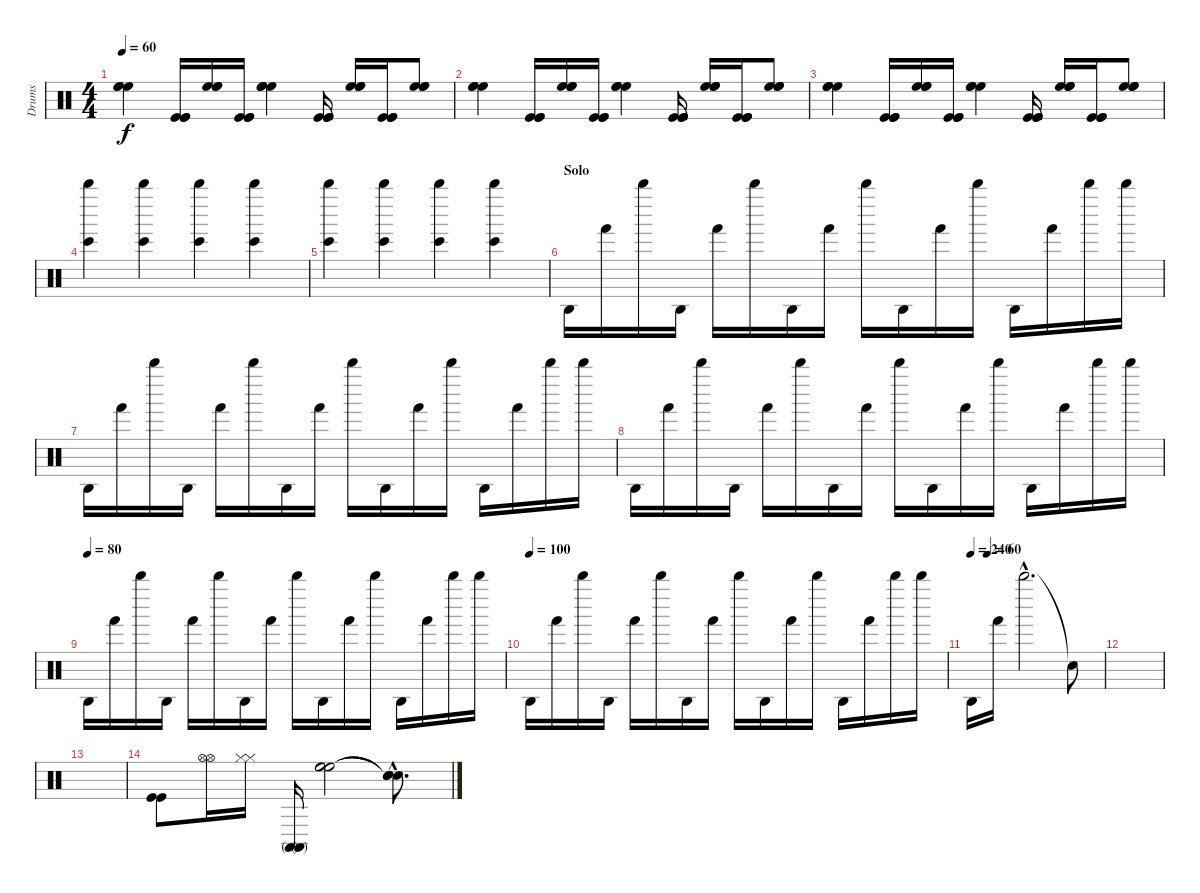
\track ("Drums" "Drums") {instrument percussion}
\staff {score}
\articulation defaults
\ts (4 4)
\tempo 60
\clef neutral
\ks c
("High Floor Tom (hit)" "High Floor Tom (hit)" "High Floor Tom (hit)").4{dy f} ("Kick (hit)" "Kick (hit)" "Kick (hit)").16 ("High Floor Tom (hit)" "High Floor Tom (hit)" "High Floor Tom (hit)").16 ("Kick (hit)" "Kick (hit)" "Kick (hit)").16 ("High Floor Tom (hit)" "High Floor Tom (hit)" "High Floor Tom (hit)").4 ("Kick (hit)" "Kick (hit)" "Kick (hit)").16 ("High Floor Tom (hit)" "High Floor Tom (hit)" "High Floor Tom (hit)").16 ("Kick (hit)" "Kick (hit)" "Kick (hit)").16 ("High Floor Tom (hit)" "High Floor Tom (hit)" "High Floor Tom (hit)").8 |
("High Floor Tom (hit)" "High Floor Tom (hit)" "High Floor Tom (hit)").4 ("Kick (hit)" "Kick (hit)" "Kick (hit)").16 ("High Floor Tom (hit)" "High Floor Tom (hit)" "High Floor Tom (hit)").16 ("Kick (hit)" "Kick (hit)" "Kick (hit)").16 ("High Floor Tom (hit)" "High Floor Tom (hit)" "High Floor Tom (hit)").4 ("Kick (hit)" "Kick (hit)" "Kick (hit)").16 ("High Floor Tom (hit)" "High Floor Tom (hit)" "High Floor Tom (hit)").16 ("Kick (hit)" "Kick (hit)" "Kick (hit)").16 ("High Floor Tom (hit)" "High Floor Tom (hit)" "High Floor Tom (hit)").8 |
("High Floor Tom (hit)" "High Floor Tom (hit)" "High Floor Tom (hit)").4 ("Kick (hit)" "Kick (hit)" "Kick (hit)").16 ("High Floor Tom (hit)" "High Floor Tom (hit)" "High Floor Tom (hit)").16 ("Kick (hit)" "Kick (hit)" "Kick (hit)").16 ("High Floor Tom (hit)" "High Floor Tom (hit)" "High Floor Tom (hit)").4 ("Kick (hit)" "Kick (hit)" "Kick (hit)").16 ("High Floor Tom (hit)" "High Floor Tom (hit)" "High Floor Tom (hit)").16 ("Kick (hit)" "Kick (hit)" "Kick (hit)").16 ("High Floor Tom (hit)" "High Floor Tom (hit)" "High Floor Tom (hit)").8 |
("Whistle high (hit)" "Bongo High (hit)").4 ("Whistle high (hit)" "Bongo High (hit)").4 ("Whistle high (hit)" "Bongo High (hit)").4 ("Whistle high (hit)" "Bongo High (hit)").4 |
("Whistle high (hit)" "Bongo High (hit)").4 ("Whistle high (hit)" "Bongo High (hit)").4 ("Whistle high (hit)" "Bongo High (hit)").4 ("Whistle high (hit)" "Bongo High (hit)").4 |
\section ("" "Solo")
"Agogo high (hit)".16 "Hand (hit)".16 "Whistle high (hit)".16 "Agogo high (hit)".16 "Hand (hit)".16 "Whistle high (hit)".16 "Agogo high (hit)".16 "Hand (hit)".16 "Whistle high (hit)".16 "Agogo high (hit)".16 "Hand (hit)".16 "Whistle high (hit)".16 "Agogo high (hit)".16 "Hand (hit)".16 "Whistle high (hit)".16 "Whistle high (hit)".16 |
"Agogo high (hit)".16 "Hand (hit)".16 "Whistle high (hit)".16 "Agogo high (hit)".16 "Hand (hit)".16 "Whistle high (hit)".16 "Agogo high (hit)".16 "Hand (hit)".16 "Whistle high (hit)".16 "Agogo high (hit)".16 "Hand (hit)".16 "Whistle high (hit)".16 "Agogo high (hit)".16 "Hand (hit)".16 "Whistle high (hit)".16 "Whistle high (hit)".16 |
"Agogo high (hit)".16 "Hand (hit)".16 "Whistle high (hit)".16 "Agogo high (hit)".16 "Hand (hit)".16 "Whistle high (hit)".16 "Agogo high (hit)".16 "Hand (hit)".16 "Whistle high (hit)".16 "Agogo high (hit)".16 "Hand (hit)".16 "Whistle high (hit)".16 "Agogo high (hit)".16 "Hand (hit)".16 "Whistle high (hit)".16 "Whistle high (hit)".16 |
\tempo (80)
"Agogo high (hit)".16 "Hand (hit)".16 "Whistle high (hit)".16 "Agogo high (hit)".16 "Hand (hit)".16 "Whistle high (hit)".16 "Agogo high (hit)".16 "Hand (hit)".16 "Whistle high (hit)".16 "Agogo high (hit)".16 "Hand (hit)".16 "Whistle high (hit)".16 "Agogo high (hit)".16 "Hand (hit)".16 "Whistle high (hit)".16 "Whistle high (hit)".16 |
\tempo (100)
"Agogo high (hit)".16 "Hand (hit)".16 "Whistle high (hit)".16 "Agogo high (hit)".16 "Hand (hit)".16 "Whistle high (hit)".16 "Agogo high (hit)".16 "Hand (hit)".16 "Whistle high (hit)".16 "Agogo high (hit)".16 "Hand (hit)".16 "Whistle high (hit)".16 "Agogo high (hit)".16 "Hand (hit)".16 "Whistle high (hit)".16 "Whistle high (hit)".16 |
\tempo 240
\tempo (60 0.125)
"Agogo high (hit)".16 "Hand (hit)".16 "Whistle high (hit)"{hac}.2{d} "Snare (hit)"{t}.8 |
|
|
("Kick (hit)" "Kick (hit)").8 ("Hi-Hat (open)" "Hi-Hat (open)").16 ("Hi-Hat (closed)" "Hi-Hat (closed)").16 ("Conga high (mute)" "Conga high (mute)").16 ("High Floor Tom (hit)" "High Floor Tom (hit)" "High Floor Tom (hit)").2 ("Snare (hit)"{hac t} "Snare (hit)"{hac t} "Snare (hit)"{hac t}).8{d}
